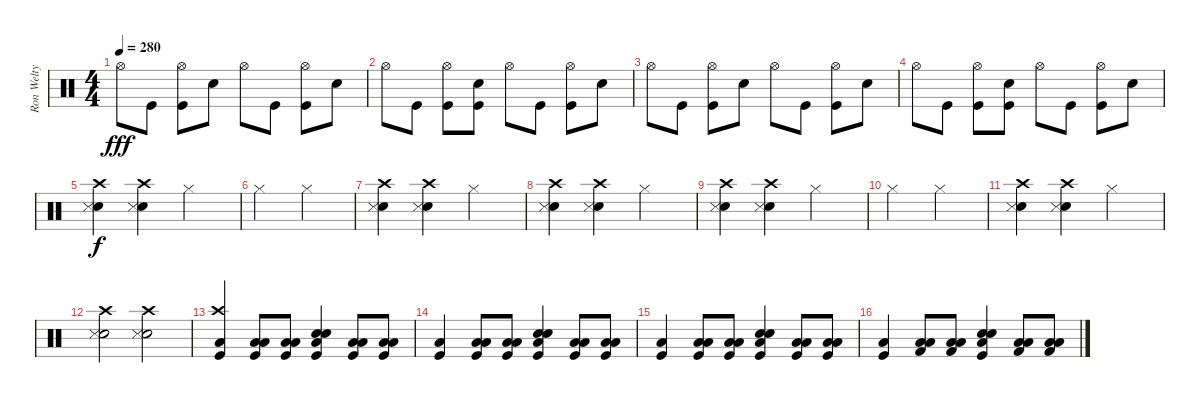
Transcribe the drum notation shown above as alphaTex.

\track ("Ron Welty" "Ron Welty") {instrument percussion}
\staff {score}
\articulation defaults
\ts (4 4)
\tempo 280
\clef neutral
\ks c "Hi-Hat (open)".8{dy fff} "Kick (hit)".8
("Hi-Hat (open)" "Kick (hit)").8 "Snare (hit) 2".8 "Hi-Hat (open)".8 "Kick (hit)".8 ("Hi-Hat (open)" "Kick (hit)").8 "Snare (hit) 2".8 |
"Hi-Hat (open)".8 "Kick (hit)".8 ("Hi-Hat (open)" "Kick (hit)").8 ("Snare (hit) 2" "Kick (hit)").8 "Hi-Hat (open)".8 "Kick (hit)".8 ("Hi-Hat (open)" "Kick (hit)").8 "Snare (hit) 2".8 |
"Hi-Hat (open)".8 "Kick (hit)".8 ("Hi-Hat (open)" "Kick (hit)").8 "Snare (hit) 2".8 "Hi-Hat (open)".8 "Kick (hit)".8 ("Hi-Hat (open)" "Kick (hit)").8 "Snare (hit) 2".8 |
"Hi-Hat (open)".8 "Kick (hit)".8 ("Hi-Hat (open)" "Kick (hit)").8 ("Snare (hit) 2" "Kick (hit)").8 "Hi-Hat (open)".8 "Kick (hit)".8 ("Hi-Hat (open)" "Kick (hit)").8 "Snare (hit) 2".8 |
("Crash high (hit)" "Snare (hit) 2" "Metronome (hit)").4{dy f} ("Crash high (hit)" "Snare (hit) 2" "Metronome (hit)").4 "Hi-Hat (closed)".2 |
"Hi-Hat (closed)".2 "Hi-Hat (closed)".2 |
("Crash high (hit)" "Snare (hit) 2" "Metronome (hit)").4 ("Crash high (hit)" "Snare (hit) 2" "Metronome (hit)").4 "Hi-Hat (closed)".2 |
("Crash high (hit)" "Snare (hit) 2" "Metronome (hit)").4 ("Crash high (hit)" "Snare (hit) 2" "Metronome (hit)").4 "Hi-Hat (closed)".2 |
("Crash high (hit)" "Snare (hit) 2" "Metronome (hit)").4 ("Crash high (hit)" "Snare (hit) 2" "Metronome (hit)").4 "Hi-Hat (closed)".2 |
"Hi-Hat (closed)".2 "Hi-Hat (closed)".2 |
("Crash high (hit)" "Snare (hit) 2" "Metronome (hit)").4 ("Crash high (hit)" "Snare (hit) 2" "Metronome (hit)").4 "Hi-Hat (closed)".2 |
("Crash high (hit)" "Snare (hit) 2" "Metronome (hit)").2 ("Crash high (hit)" "Snare (hit) 2" "Metronome (hit)").2 |
("Crash high (hit)" "Low Tom (hit)" "Kick (hit)").4 ("Low Tom (hit)" "Low Floor Tom (hit)" "Kick (hit)").8 ("Low Tom (hit)" "Low Floor Tom (hit)" "Kick (hit)").8 ("Snare (hit) 2" "Snare (hit) 2" "Low Tom (hit)" "Kick (hit)").4 ("Low Tom (hit)" "Low Floor Tom (hit)" "Kick (hit)").8 ("Low Tom (hit)" "Low Floor Tom (hit)" "Kick (hit)").8 |
("Low Tom (hit)" "Kick (hit)").4 ("Low Tom (hit)" "Low Floor Tom (hit)" "Kick (hit)").8 ("Low Tom (hit)" "Low Floor Tom (hit)" "Kick (hit)").8 ("Snare (hit) 2" "Snare (hit) 2" "Low Tom (hit)" "Kick (hit)").4 ("Low Tom (hit)" "Low Floor Tom (hit)" "Kick (hit)").8 ("Low Tom (hit)" "Low Floor Tom (hit)" "Kick (hit)").8 |
("Low Tom (hit)" "Kick (hit)").4 ("Low Tom (hit)" "Low Floor Tom (hit)" "Kick (hit)").8 ("Low Tom (hit)" "Low Floor Tom (hit)" "Kick (hit)").8 ("Snare (hit) 2" "Snare (hit) 2" "Low Tom (hit)" "Kick (hit)").4 ("Low Tom (hit)" "Low Floor Tom (hit)" "Kick (hit)").8 ("Low Tom (hit)" "Low Floor Tom (hit)" "Kick (hit)").8 |
("Low Tom (hit)" "Kick (hit)").4 ("Low Tom (hit)" "Low Floor Tom (hit)" "Kick (hit) 2").8 ("Low Tom (hit)" "Low Floor Tom (hit)" "Kick (hit) 2").8 ("Snare (hit) 2" "Snare (hit) 2" "Low Tom (hit)" "Kick (hit)").4 ("Low Tom (hit)" "Low Floor Tom (hit)" "Kick (hit) 2").8 ("Low Tom (hit)" "Low Floor Tom (hit)" "Kick (hit) 2").8
